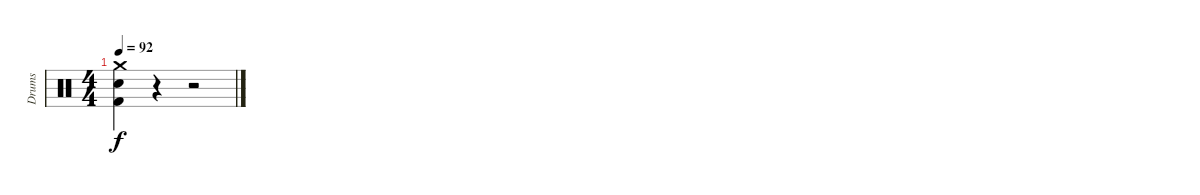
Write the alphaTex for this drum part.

\track ("Drums" "Drums") {instrument percussion}
\staff {score}
\articulation defaults
\ts (4 4)
\tempo 92
\clef neutral
\ks c
("Crash medium (hit)" "Electric Snare (hit)" "Kick (hit) 2").4{dy f} r.4 r.2
